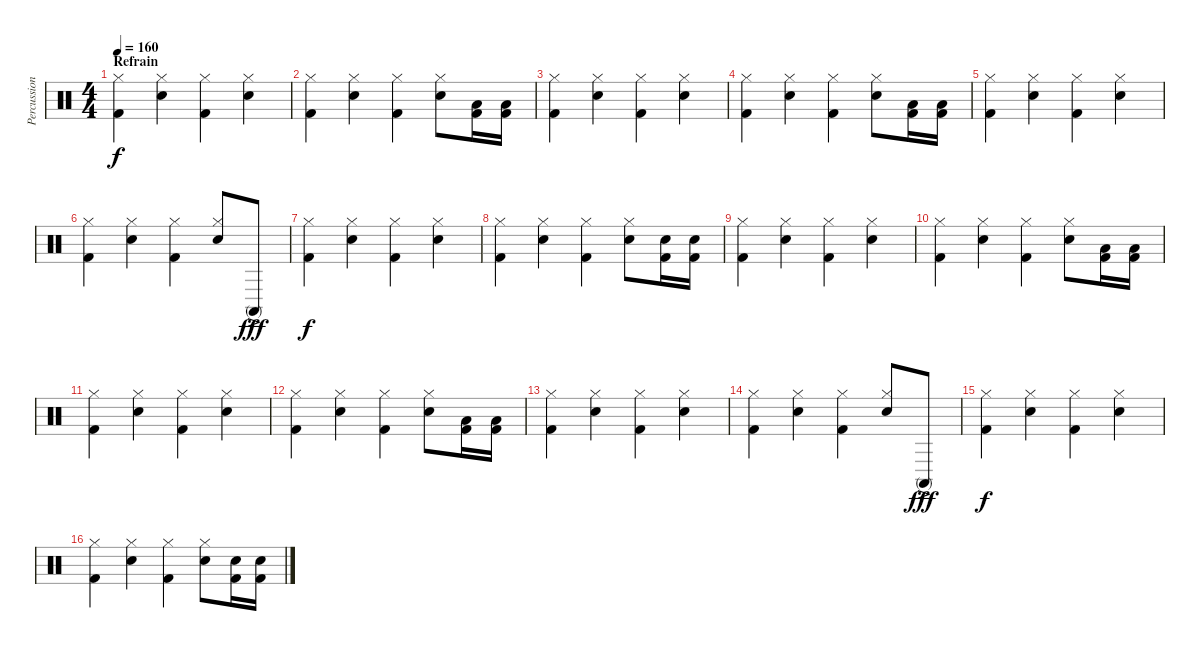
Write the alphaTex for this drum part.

\track ("Percussions" "Percussion") {instrument percussion}
\staff {score}
\articulation defaults
\ts (4 4)
\section ("" "Refrain")
\tempo 160
\clef neutral
\ks c
("Hi-Hat (closed)" "Kick (hit) 2").4{dy f} ("Hi-Hat (closed)" "Snare (hit) 2").4 ("Hi-Hat (closed)" "Kick (hit) 2").4 ("Hi-Hat (closed)" "Snare (hit) 2").4 |
("Hi-Hat (closed)" "Kick (hit) 2").4 ("Hi-Hat (closed)" "Snare (hit) 2").4 ("Hi-Hat (closed)" "Kick (hit) 2").4 ("Hi-Hat (closed)" "Snare (hit) 2").8 ("Low Tom (hit)" "Kick (hit) 2").16 ("Low Floor Tom (hit)" "Kick (hit) 2").16 |
("Hi-Hat (closed)" "Kick (hit) 2").4 ("Hi-Hat (closed)" "Snare (hit) 2").4 ("Hi-Hat (closed)" "Kick (hit) 2").4 ("Hi-Hat (closed)" "Snare (hit) 2").4 |
("Hi-Hat (closed)" "Kick (hit) 2").4 ("Hi-Hat (closed)" "Snare (hit) 2").4 ("Hi-Hat (closed)" "Kick (hit) 2").4 ("Hi-Hat (closed)" "Snare (hit) 2").8 ("Low Tom (hit)" "Kick (hit) 2").16 ("Low Floor Tom (hit)" "Kick (hit) 2").16 |
("Hi-Hat (closed)" "Kick (hit) 2").4 ("Hi-Hat (closed)" "Snare (hit) 2").4 ("Hi-Hat (closed)" "Kick (hit) 2").4 ("Hi-Hat (closed)" "Snare (hit) 2").4 |
("Hi-Hat (closed)" "Kick (hit) 2").4 ("Hi-Hat (closed)" "Snare (hit) 2").4 ("Hi-Hat (closed)" "Kick (hit) 2").4 ("Hi-Hat (closed)" "Snare (hit) 2").8 "Conga high (mute)"{ac}.8{dy fff} |
("Hi-Hat (closed)" "Kick (hit) 2").4{dy f} ("Hi-Hat (closed)" "Snare (hit) 2").4 ("Hi-Hat (closed)" "Kick (hit) 2").4 ("Hi-Hat (closed)" "Snare (hit) 2").4 |
("Hi-Hat (closed)" "Kick (hit) 2").4 ("Hi-Hat (closed)" "Snare (hit) 2").4 ("Hi-Hat (closed)" "Kick (hit) 2").4 ("Hi-Hat (closed)" "Snare (hit) 2").8 ("Snare (hit) 2" "Kick (hit) 2").16 ("Snare (hit) 2" "Kick (hit) 2").16 |
("Hi-Hat (closed)" "Kick (hit) 2").4 ("Hi-Hat (closed)" "Snare (hit) 2").4 ("Hi-Hat (closed)" "Kick (hit) 2").4 ("Hi-Hat (closed)" "Snare (hit) 2").4 |
("Hi-Hat (closed)" "Kick (hit) 2").4 ("Hi-Hat (closed)" "Snare (hit) 2").4 ("Hi-Hat (closed)" "Kick (hit) 2").4 ("Hi-Hat (closed)" "Snare (hit) 2").8 ("Low Tom (hit)" "Kick (hit) 2").16 ("Low Floor Tom (hit)" "Kick (hit) 2").16 |
("Hi-Hat (closed)" "Kick (hit) 2").4 ("Hi-Hat (closed)" "Snare (hit) 2").4 ("Hi-Hat (closed)" "Kick (hit) 2").4 ("Hi-Hat (closed)" "Snare (hit) 2").4 |
("Hi-Hat (closed)" "Kick (hit) 2").4 ("Hi-Hat (closed)" "Snare (hit) 2").4 ("Hi-Hat (closed)" "Kick (hit) 2").4 ("Hi-Hat (closed)" "Snare (hit) 2").8 ("Low Tom (hit)" "Kick (hit) 2").16 ("Low Floor Tom (hit)" "Kick (hit) 2").16 |
("Hi-Hat (closed)" "Kick (hit) 2").4 ("Hi-Hat (closed)" "Snare (hit) 2").4 ("Hi-Hat (closed)" "Kick (hit) 2").4 ("Hi-Hat (closed)" "Snare (hit) 2").4 |
("Hi-Hat (closed)" "Kick (hit) 2").4 ("Hi-Hat (closed)" "Snare (hit) 2").4 ("Hi-Hat (closed)" "Kick (hit) 2").4 ("Hi-Hat (closed)" "Snare (hit) 2").8 "Conga high (mute)"{ac}.8{dy fff} |
("Hi-Hat (closed)" "Kick (hit) 2").4{dy f} ("Hi-Hat (closed)" "Snare (hit) 2").4 ("Hi-Hat (closed)" "Kick (hit) 2").4 ("Hi-Hat (closed)" "Snare (hit) 2").4 |
("Hi-Hat (closed)" "Kick (hit) 2").4 ("Hi-Hat (closed)" "Snare (hit) 2").4 ("Hi-Hat (closed)" "Kick (hit) 2").4 ("Hi-Hat (closed)" "Snare (hit) 2").8 ("Snare (hit) 2" "Kick (hit) 2").16 ("Snare (hit) 2" "Kick (hit) 2").16
